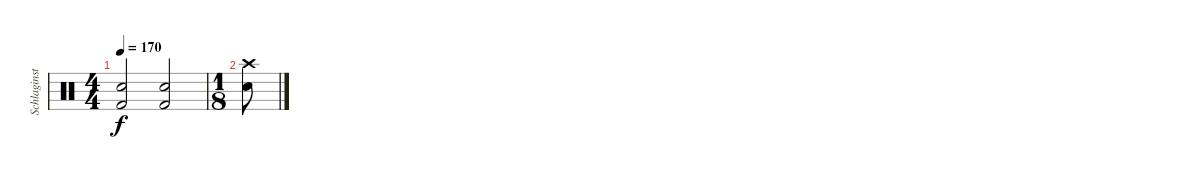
\track ("Schlaginstrumente - Auswahl" "Schlaginst") {instrument percussion}
\staff {score}
\articulation defaults
\ts (4 4)
\tempo 170
\clef neutral
\ks c
("Kick (hit) 2" "Snare (hit) 2").2{dy f} ("Kick (hit) 2" "Snare (hit) 2").2 |
\ts (1 8)
("Crash high (hit)" "Snare (hit) 2").8
